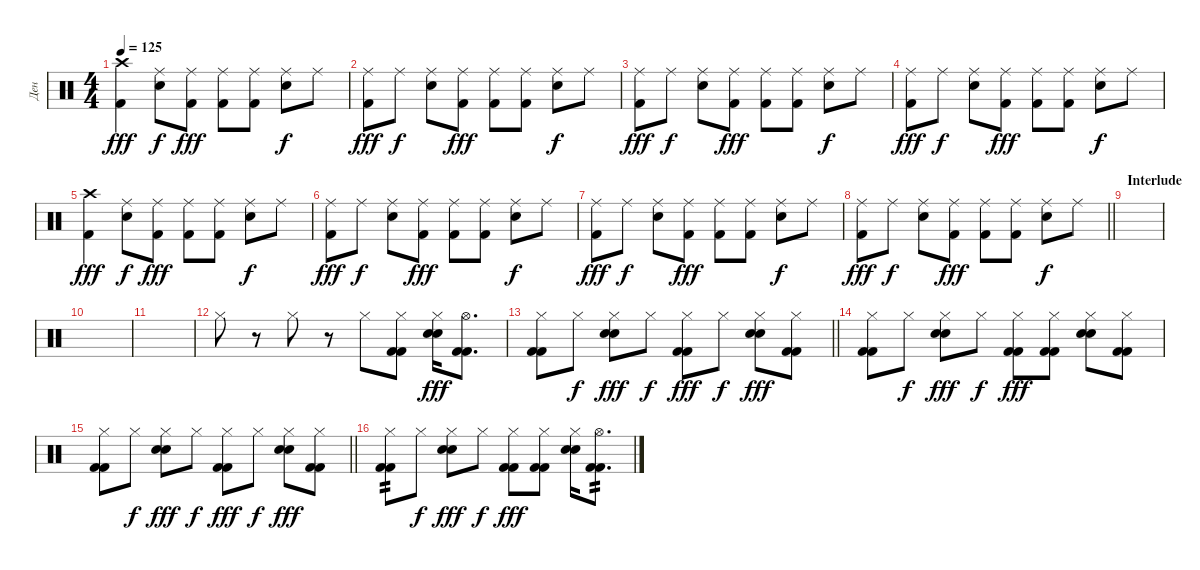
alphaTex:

\track ("Ден" "Ден") {instrument percussion}
\staff {score}
\articulation defaults
\ts (4 4)
\tempo 125
\clef neutral
\ks c
("Kick (hit) 2" "Crash high (hit)").4{dy fff} ("Electric Snare (hit)" "Ride (middle)").8{dy f} ("Kick (hit) 2" "Ride (middle)").8{dy fff} ("Kick (hit) 2" "Ride (middle)").8 ("Kick (hit) 2" "Ride (middle)").8 ("Electric Snare (hit)" "Ride (middle)").8{dy f} "Ride (middle)".8 |
("Kick (hit) 2" "Ride (middle)").8{dy fff} "Ride (middle)".8{dy f} ("Electric Snare (hit)" "Ride (middle)").8 ("Kick (hit) 2" "Ride (middle)").8{dy fff} ("Kick (hit) 2" "Ride (middle)").8 ("Kick (hit) 2" "Ride (middle)").8 ("Electric Snare (hit)" "Ride (middle)").8{dy f} "Ride (middle)".8 |
("Kick (hit) 2" "Ride (middle)").8{dy fff} "Ride (middle)".8{dy f} ("Electric Snare (hit)" "Ride (middle)").8 ("Kick (hit) 2" "Ride (middle)").8{dy fff} ("Kick (hit) 2" "Ride (middle)").8 ("Kick (hit) 2" "Ride (middle)").8 ("Electric Snare (hit)" "Ride (middle)").8{dy f} "Ride (middle)".8 |
("Kick (hit) 2" "Ride (middle)").8{dy fff} "Ride (middle)".8{dy f} ("Electric Snare (hit)" "Ride (middle)").8 ("Kick (hit) 2" "Ride (middle)").8{dy fff} ("Kick (hit) 2" "Ride (middle)").8 ("Kick (hit) 2" "Ride (middle)").8 ("Electric Snare (hit)" "Ride (middle)").8{dy f} "Ride (middle)".8 |
("Kick (hit) 2" "Crash high (hit)").4{dy fff} ("Electric Snare (hit)" "Ride (middle)").8{dy f} ("Kick (hit) 2" "Ride (middle)").8{dy fff} ("Kick (hit) 2" "Ride (middle)").8 ("Kick (hit) 2" "Ride (middle)").8 ("Electric Snare (hit)" "Ride (middle)").8{dy f} "Ride (middle)".8 |
("Kick (hit) 2" "Ride (middle)").8{dy fff} "Ride (middle)".8{dy f} ("Electric Snare (hit)" "Ride (middle)").8 ("Kick (hit) 2" "Ride (middle)").8{dy fff} ("Kick (hit) 2" "Ride (middle)").8 ("Kick (hit) 2" "Ride (middle)").8 ("Electric Snare (hit)" "Ride (middle)").8{dy f} "Ride (middle)".8 |
("Kick (hit) 2" "Ride (middle)").8{dy fff} "Ride (middle)".8{dy f} ("Electric Snare (hit)" "Ride (middle)").8 ("Kick (hit) 2" "Ride (middle)").8{dy fff} ("Kick (hit) 2" "Ride (middle)").8 ("Kick (hit) 2" "Ride (middle)").8 ("Electric Snare (hit)" "Ride (middle)").8{dy f} "Ride (middle)".8 |
\barLineRight lightlight
("Kick (hit) 2" "Ride (middle)").8{dy fff} "Ride (middle)".8{dy f} ("Electric Snare (hit)" "Ride (middle)").8 ("Kick (hit) 2" "Ride (middle)").8{dy fff} ("Kick (hit) 2" "Ride (middle)").8 ("Kick (hit) 2" "Ride (middle)").8 ("Electric Snare (hit)" "Ride (middle)").8{dy f} "Ride (middle)".8 |
\section ("" "Interlude")
|
|
|
"Hi-Hat (closed)".8 r.8 "Hi-Hat (closed)".8 r.8 "Hi-Hat (closed)".8 ("Hi-Hat (closed)" "Kick (hit) 2" "Kick (hit) 2").8 ("Hi-Hat (closed)" "Electric Snare (hit)" "Electric Snare (hit)").16{dy fff} ("Hi-Hat (open)" "Kick (hit) 2" "Kick (hit) 2").8{d} |
\barLineRight lightlight
("Hi-Hat (closed)" "Kick (hit) 2" "Kick (hit) 2").8 "Hi-Hat (closed)".8{dy f} ("Hi-Hat (closed)" "Electric Snare (hit)" "Electric Snare (hit)").8{dy fff} "Hi-Hat (closed)".8{dy f} ("Hi-Hat (closed)" "Kick (hit) 2" "Kick (hit) 2").8{dy fff} "Hi-Hat (closed)".8{dy f} ("Hi-Hat (closed)" "Electric Snare (hit)" "Electric Snare (hit)").8{dy fff} ("Hi-Hat (closed)" "Kick (hit) 2" "Kick (hit) 2").8 |
("Hi-Hat (closed)" "Kick (hit) 2" "Kick (hit) 2").8 "Hi-Hat (closed)".8{dy f} ("Hi-Hat (closed)" "Electric Snare (hit)" "Electric Snare (hit)").8{dy fff} "Hi-Hat (closed)".8{dy f} ("Hi-Hat (closed)" "Kick (hit) 2" "Kick (hit) 2").8{dy fff} ("Hi-Hat (closed)" "Kick (hit) 2" "Kick (hit) 2").8 ("Hi-Hat (closed)" "Electric Snare (hit)" "Electric Snare (hit)").8 ("Hi-Hat (closed)" "Kick (hit) 2" "Kick (hit) 2").8 |
\barLineRight lightlight
("Hi-Hat (closed)" "Kick (hit) 2" "Kick (hit) 2").8 "Hi-Hat (closed)".8{dy f} ("Hi-Hat (closed)" "Electric Snare (hit)" "Electric Snare (hit)").8{dy fff} "Hi-Hat (closed)".8{dy f} ("Hi-Hat (closed)" "Kick (hit) 2" "Kick (hit) 2").8{dy fff} "Hi-Hat (closed)".8{dy f} ("Hi-Hat (closed)" "Electric Snare (hit)" "Electric Snare (hit)").8{dy fff} ("Hi-Hat (closed)" "Kick (hit) 2" "Kick (hit) 2").8 |
("Hi-Hat (closed)" "Kick (hit) 2" "Kick (hit) 2").8{tp 2} "Hi-Hat (closed)".8{dy f} ("Hi-Hat (closed)" "Electric Snare (hit)" "Electric Snare (hit)").8{dy fff} "Hi-Hat (closed)".8{dy f} ("Hi-Hat (closed)" "Kick (hit) 2" "Kick (hit) 2").8{dy fff} ("Hi-Hat (closed)" "Kick (hit) 2" "Kick (hit) 2").8 ("Hi-Hat (closed)" "Electric Snare (hit)" "Electric Snare (hit)").16 ("Hi-Hat (open)" "Kick (hit) 2" "Kick (hit) 2").8{d tp 2}
